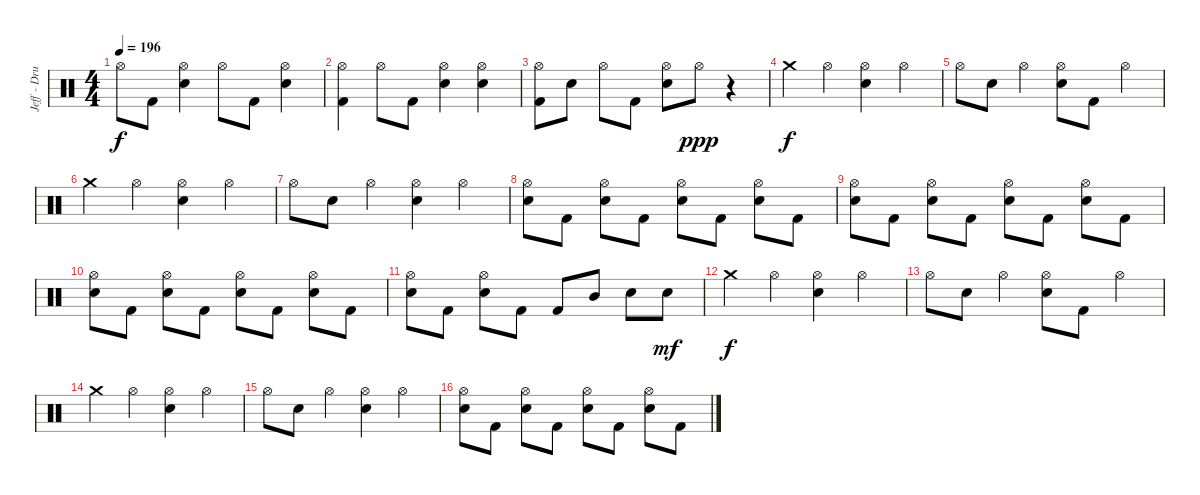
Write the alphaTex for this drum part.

\track ("Jeff - Drums" "Jeff - Dru") {instrument percussion}
\staff {score}
\articulation defaults
\ts (4 4)
\tempo 196
\clef neutral
\ks c "Hi-Hat (open)".8{dy f} "Kick (hit) 2".8
("Hi-Hat (open)" "Electric Snare (hit)").4 "Hi-Hat (open)".8 "Kick (hit) 2".8 ("Hi-Hat (open)" "Electric Snare (hit)").4 |
("Hi-Hat (open)" "Kick (hit) 2").4 "Hi-Hat (open)".8 "Kick (hit) 2".8 ("Hi-Hat (open)" "Electric Snare (hit)").4 ("Hi-Hat (open)" "Electric Snare (hit)").4 |
("Hi-Hat (open)" "Kick (hit) 2").8 "Electric Snare (hit)".8 "Hi-Hat (open)".8 "Kick (hit) 2".8 ("Hi-Hat (open)" "Electric Snare (hit)").8 "Hi-Hat (open)".8{dy ppp} r.4 |
"Crash medium (hit)".4{dy f} "Hi-Hat (open)".4 ("Hi-Hat (open)" "Electric Snare (hit)").4 "Hi-Hat (open)".4 |
"Hi-Hat (open)".8 "Electric Snare (hit)".8 "Hi-Hat (open)".4 ("Hi-Hat (open)" "Electric Snare (hit)").8 "Kick (hit) 2".8 "Hi-Hat (open)".4 |
"Crash medium (hit)".4 "Hi-Hat (open)".4 ("Hi-Hat (open)" "Electric Snare (hit)").4 "Hi-Hat (open)".4 |
"Hi-Hat (open)".8 "Electric Snare (hit)".8 "Hi-Hat (open)".4 ("Hi-Hat (open)" "Electric Snare (hit)").4 "Hi-Hat (open)".4 |
("Hi-Hat (open)" "Electric Snare (hit)").8 "Kick (hit) 2".8 ("Hi-Hat (open)" "Electric Snare (hit)").8 "Kick (hit) 2".8 ("Hi-Hat (open)" "Electric Snare (hit)").8 "Kick (hit) 2".8 ("Hi-Hat (open)" "Electric Snare (hit)").8 "Kick (hit) 2".8 |
("Hi-Hat (open)" "Electric Snare (hit)").8 "Kick (hit) 2".8 ("Hi-Hat (open)" "Electric Snare (hit)").8 "Kick (hit) 2".8 ("Hi-Hat (open)" "Electric Snare (hit)").8 "Kick (hit) 2".8 ("Hi-Hat (open)" "Electric Snare (hit)").8 "Kick (hit) 2".8 |
("Hi-Hat (open)" "Electric Snare (hit)").8 "Kick (hit) 2".8 ("Hi-Hat (open)" "Electric Snare (hit)").8 "Kick (hit) 2".8 ("Hi-Hat (open)" "Electric Snare (hit)").8 "Kick (hit) 2".8 ("Hi-Hat (open)" "Electric Snare (hit)").8 "Kick (hit) 2".8 |
("Hi-Hat (open)" "Electric Snare (hit)").8 "Kick (hit) 2".8 ("Hi-Hat (open)" "Electric Snare (hit)").8 "Kick (hit) 2".8 "Kick (hit) 2".8 "Mid Tom (hit)".8 "Electric Snare (hit)".8 "Electric Snare (hit)".8{dy mf} |
"Crash medium (hit)".4{dy f} "Hi-Hat (open)".4 ("Hi-Hat (open)" "Electric Snare (hit)").4 "Hi-Hat (open)".4 |
"Hi-Hat (open)".8 "Electric Snare (hit)".8 "Hi-Hat (open)".4 ("Hi-Hat (open)" "Electric Snare (hit)").8 "Kick (hit) 2".8 "Hi-Hat (open)".4 |
"Crash medium (hit)".4 "Hi-Hat (open)".4 ("Hi-Hat (open)" "Electric Snare (hit)").4 "Hi-Hat (open)".4 |
"Hi-Hat (open)".8 "Electric Snare (hit)".8 "Hi-Hat (open)".4 ("Hi-Hat (open)" "Electric Snare (hit)").4 "Hi-Hat (open)".4 |
("Hi-Hat (open)" "Electric Snare (hit)").8 "Kick (hit) 2".8 ("Hi-Hat (open)" "Electric Snare (hit)").8 "Kick (hit) 2".8 ("Hi-Hat (open)" "Electric Snare (hit)").8 "Kick (hit) 2".8 ("Hi-Hat (open)" "Electric Snare (hit)").8 "Kick (hit) 2".8
